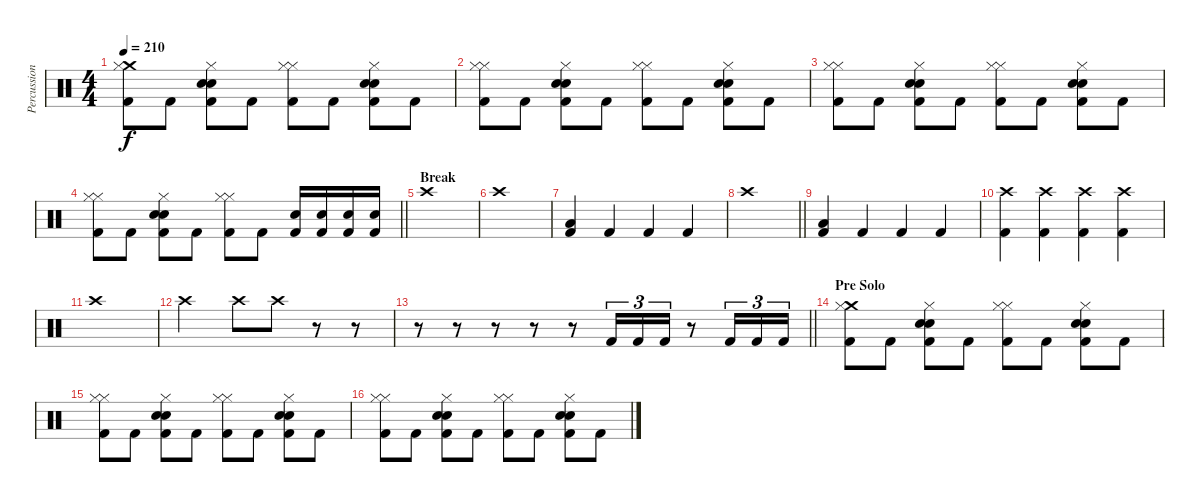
\track ("Percussion" "Percussion") {instrument percussion}
\staff {score}
\articulation defaults
\ts (4 4)
\tempo 210
\clef neutral
\ks c
("Crash medium (hit)" "Hi-Hat (closed)" "Kick (hit) 2").8{dy f} "Kick (hit) 2".8 ("Hi-Hat (closed)" "Snare (hit) 2" "Electric Snare (hit)" "Kick (hit) 2").8 "Kick (hit) 2".8 ("Hi-Hat (closed)" "Hi-Hat (closed)" "Kick (hit) 2").8 "Kick (hit) 2".8 ("Hi-Hat (closed)" "Snare (hit) 2" "Electric Snare (hit)" "Kick (hit) 2").8 "Kick (hit) 2".8 |
("Hi-Hat (closed)" "Hi-Hat (closed)" "Kick (hit) 2").8 "Kick (hit) 2".8 ("Hi-Hat (closed)" "Snare (hit) 2" "Electric Snare (hit)" "Kick (hit) 2").8 "Kick (hit) 2".8 ("Hi-Hat (closed)" "Hi-Hat (closed)" "Kick (hit) 2").8 "Kick (hit) 2".8 ("Hi-Hat (closed)" "Snare (hit) 2" "Electric Snare (hit)" "Kick (hit) 2").8 "Kick (hit) 2".8 |
("Hi-Hat (closed)" "Hi-Hat (closed)" "Kick (hit) 2").8 "Kick (hit) 2".8 ("Hi-Hat (closed)" "Snare (hit) 2" "Electric Snare (hit)" "Kick (hit) 2").8 "Kick (hit) 2".8 ("Hi-Hat (closed)" "Hi-Hat (closed)" "Kick (hit) 2").8 "Kick (hit) 2".8 ("Hi-Hat (closed)" "Snare (hit) 2" "Electric Snare (hit)" "Kick (hit) 2").8 "Kick (hit) 2".8 |
\barLineRight lightlight
("Hi-Hat (closed)" "Hi-Hat (closed)" "Kick (hit) 2").8 "Kick (hit) 2".8 ("Hi-Hat (closed)" "Snare (hit) 2" "Electric Snare (hit)" "Kick (hit) 2").8 "Kick (hit) 2".8 ("Hi-Hat (closed)" "Hi-Hat (closed)" "Kick (hit) 2").8 "Kick (hit) 2".8 ("Electric Snare (hit)" "Kick (hit) 2").16 ("Electric Snare (hit)" "Kick (hit) 2").16 ("Electric Snare (hit)" "Kick (hit) 2").16 ("Electric Snare (hit)" "Kick (hit) 2").16 |
\section ("" "Break")
"Crash high (hit)".1 |
"Crash high (hit)".1 |
("Low Tom (hit)" "Kick (hit) 2").4 "Kick (hit) 2".4 "Kick (hit) 2".4 "Kick (hit) 2".4 |
\barLineRight lightlight "Crash high (hit)".1
|
("Low Tom (hit)" "Kick (hit) 2").4 "Kick (hit) 2".4 "Kick (hit) 2".4 "Kick (hit) 2".4 |
("Crash high (hit)" "Kick (hit) 2").4 ("Crash high (hit)" "Kick (hit) 2").4 ("Crash high (hit)" "Kick (hit) 2").4 ("Crash high (hit)" "Kick (hit) 2").4 |
"Crash high (hit)".1 |
"Crash high (hit)".2 "Crash high (hit)".8 "Crash high (hit)".8 r.8 r.8 |
\barLineRight lightlight
r.8 r.8 r.8 r.8 r.8 "Kick (hit) 2".16{tu (3 2)} "Kick (hit) 2".16{tu (3 2)} "Kick (hit) 2".16{tu (3 2)} r.8 "Kick (hit) 2".16{tu (3 2)} "Kick (hit) 2".16{tu (3 2)} "Kick (hit) 2".16{tu (3 2)} |
\section ("" "Pre Solo")
("Crash medium (hit)" "Hi-Hat (closed)" "Kick (hit) 2").8 "Kick (hit) 2".8 ("Hi-Hat (closed)" "Snare (hit) 2" "Electric Snare (hit)" "Kick (hit) 2").8 "Kick (hit) 2".8 ("Hi-Hat (closed)" "Hi-Hat (closed)" "Kick (hit) 2").8 "Kick (hit) 2".8 ("Hi-Hat (closed)" "Snare (hit) 2" "Electric Snare (hit)" "Kick (hit) 2").8 "Kick (hit) 2".8 |
("Hi-Hat (closed)" "Hi-Hat (closed)" "Kick (hit) 2").8 "Kick (hit) 2".8 ("Hi-Hat (closed)" "Snare (hit) 2" "Electric Snare (hit)" "Kick (hit) 2").8 "Kick (hit) 2".8 ("Hi-Hat (closed)" "Hi-Hat (closed)" "Kick (hit) 2").8 "Kick (hit) 2".8 ("Hi-Hat (closed)" "Snare (hit) 2" "Electric Snare (hit)" "Kick (hit) 2").8 "Kick (hit) 2".8 |
("Hi-Hat (closed)" "Hi-Hat (closed)" "Kick (hit) 2").8 "Kick (hit) 2".8 ("Hi-Hat (closed)" "Snare (hit) 2" "Electric Snare (hit)" "Kick (hit) 2").8 "Kick (hit) 2".8 ("Hi-Hat (closed)" "Hi-Hat (closed)" "Kick (hit) 2").8 "Kick (hit) 2".8 ("Hi-Hat (closed)" "Snare (hit) 2" "Electric Snare (hit)" "Kick (hit) 2").8 "Kick (hit) 2".8
